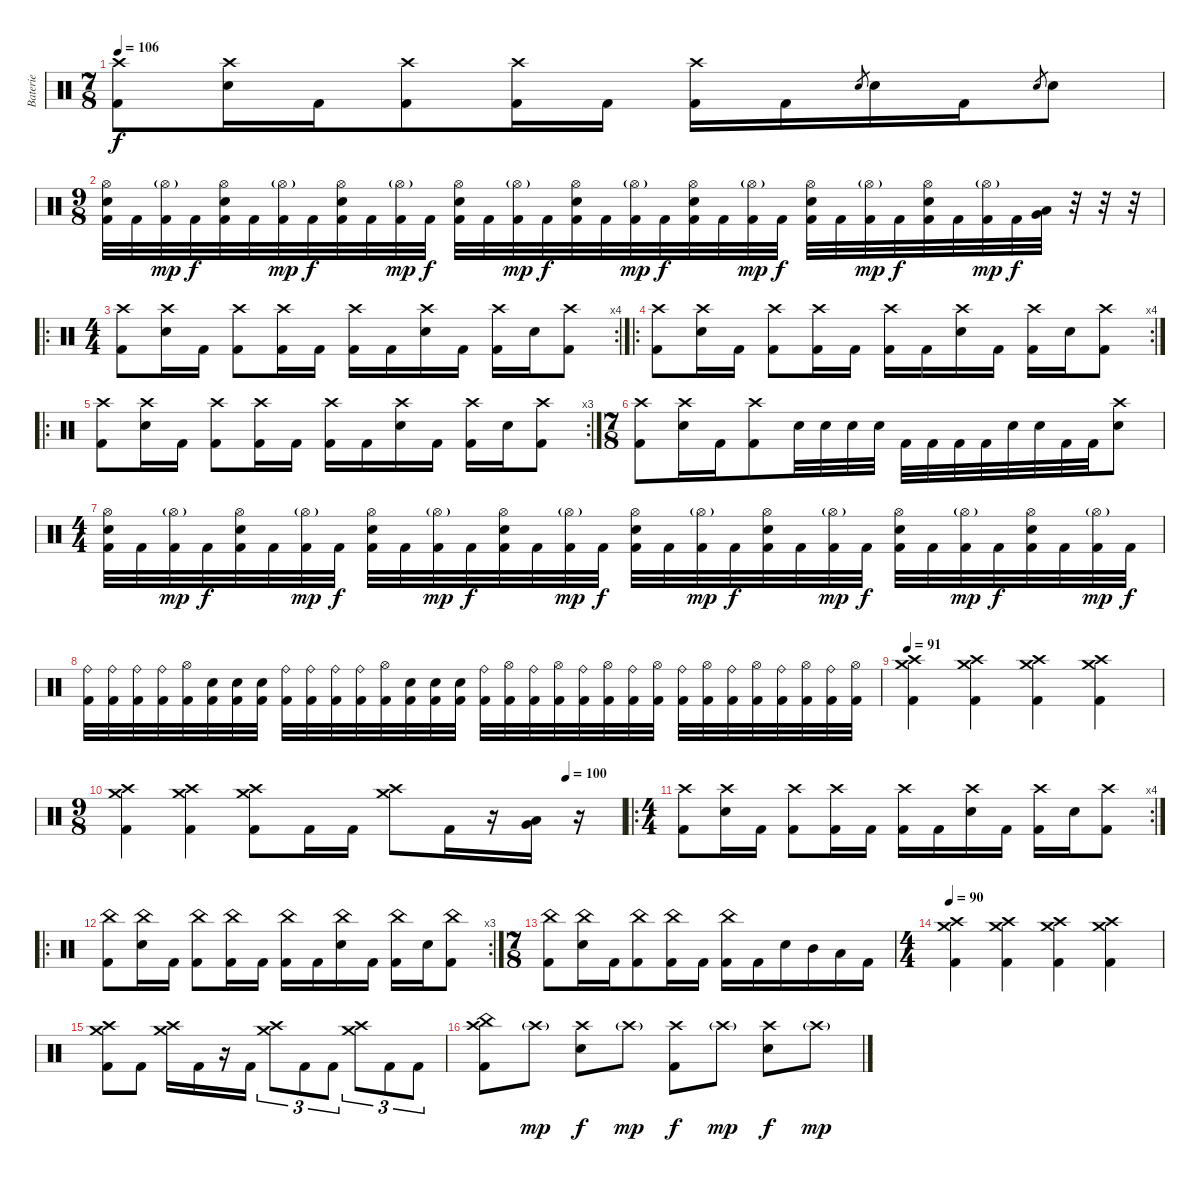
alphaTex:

\track ("Baterie" "Baterie") {instrument percussion}
\staff {score}
\articulation defaults
\ts (7 8)
\tempo 106
\clef neutral
\ks c
("Crash high (hit)" "Kick (hit) 2").8{dy f} ("Crash high (hit)" "Electric Snare (hit)").16 "Kick (hit) 2".16 ("Crash high (hit)" "Kick (hit) 2").8 ("Crash high (hit)" "Kick (hit) 2").16 "Kick (hit) 2".16 ("Crash high (hit)" "Kick (hit) 2").16 "Kick (hit) 2".16 "Electric Snare (hit)".8{gr} "Electric Snare (hit)".16 "Kick (hit) 2".16 "Electric Snare (hit)".8{gr} "Electric Snare (hit)".8 |
\ts (9 8)
("Hi-Hat (open)" "Electric Snare (hit)" "Kick (hit) 2").32 "Kick (hit) 2".32 ("Hi-Hat (open)"{g} "Kick (hit) 2").32{dy mp} "Kick (hit) 2".32{dy f} ("Hi-Hat (open)" "Electric Snare (hit)" "Kick (hit) 2").32 "Kick (hit) 2".32 ("Hi-Hat (open)"{g} "Kick (hit) 2").32{dy mp} "Kick (hit) 2".32{dy f} ("Hi-Hat (open)" "Electric Snare (hit)" "Kick (hit) 2").32 "Kick (hit) 2".32 ("Hi-Hat (open)"{g} "Kick (hit) 2").32{dy mp} "Kick (hit) 2".32{dy f} ("Hi-Hat (open)" "Electric Snare (hit)" "Kick (hit) 2").32 "Kick (hit) 2".32 ("Hi-Hat (open)"{g} "Kick (hit) 2").32{dy mp} "Kick (hit) 2".32{dy f} ("Hi-Hat (open)" "Electric Snare (hit)" "Kick (hit) 2").32 "Kick (hit) 2".32 ("Hi-Hat (open)"{g} "Kick (hit) 2").32{dy mp} "Kick (hit) 2".32{dy f} ("Hi-Hat (open)" "Electric Snare (hit)" "Kick (hit) 2").32 "Kick (hit) 2".32 ("Hi-Hat (open)"{g} "Kick (hit) 2").32{dy mp} "Kick (hit) 2".32{dy f} ("Hi-Hat (open)" "Electric Snare (hit)" "Kick (hit) 2").32 "Kick (hit) 2".32 ("Hi-Hat (open)"{g} "Kick (hit) 2").32{dy mp} "Kick (hit) 2".32{dy f} ("Hi-Hat (open)" "Electric Snare (hit)" "Kick (hit) 2").32 "Kick (hit) 2".32 ("Hi-Hat (open)"{g} "Kick (hit) 2").32{dy mp} "Kick (hit) 2".32{dy f} ("Very Low Tom (hit)" "Low Tom (hit)").32 r.32 r.32 r.32 |
\ro
\rc 4
\ts (4 4)
("Crash high (hit)" "Kick (hit) 2").8 ("Crash high (hit)" "Electric Snare (hit)").16 "Kick (hit) 2".16 ("Crash high (hit)" "Kick (hit) 2").8 ("Crash high (hit)" "Kick (hit) 2").16 "Kick (hit) 2".16 ("Crash high (hit)" "Kick (hit) 2").16 "Kick (hit) 2".16 ("Crash high (hit)" "Electric Snare (hit)").16 "Kick (hit) 2".16 ("Crash high (hit)" "Kick (hit) 2").16 "Electric Snare (hit)".16 ("Crash high (hit)" "Kick (hit) 2").8 |
\ro
\rc 4
("Crash high (hit)" "Kick (hit) 2").8 ("Crash high (hit)" "Electric Snare (hit)").16 "Kick (hit) 2".16 ("Crash high (hit)" "Kick (hit) 2").8 ("Crash high (hit)" "Kick (hit) 2").16 "Kick (hit) 2".16 ("Crash high (hit)" "Kick (hit) 2").16 "Kick (hit) 2".16 ("Crash high (hit)" "Electric Snare (hit)").16 "Kick (hit) 2".16 ("Crash high (hit)" "Kick (hit) 2").16 "Electric Snare (hit)".16 ("Crash high (hit)" "Kick (hit) 2").8 |
\ro
\rc 3
("Crash high (hit)" "Kick (hit) 2").8 ("Crash high (hit)" "Electric Snare (hit)").16 "Kick (hit) 2".16 ("Crash high (hit)" "Kick (hit) 2").8 ("Crash high (hit)" "Kick (hit) 2").16 "Kick (hit) 2".16 ("Crash high (hit)" "Kick (hit) 2").16 "Kick (hit) 2".16 ("Crash high (hit)" "Electric Snare (hit)").16 "Kick (hit) 2".16 ("Crash high (hit)" "Kick (hit) 2").16 "Electric Snare (hit)".16 ("Crash high (hit)" "Kick (hit) 2").8 |
\ts (7 8)
("Crash high (hit)" "Kick (hit) 2").8 ("Crash high (hit)" "Electric Snare (hit)").16 "Kick (hit) 2".16 ("Crash high (hit)" "Kick (hit) 2").8 "Electric Snare (hit)".32 "Electric Snare (hit)".32 "Electric Snare (hit)".32 "Electric Snare (hit)".32 "Kick (hit) 2".32 "Kick (hit) 2".32 "Kick (hit) 2".32 "Kick (hit) 2".32 "Electric Snare (hit)".32 "Electric Snare (hit)".32 "Kick (hit) 2".32 "Kick (hit) 2".32 ("Crash high (hit)" "Electric Snare (hit)").8 |
\ts (4 4)
("Hi-Hat (open)" "Electric Snare (hit)" "Kick (hit) 2").32 "Kick (hit) 2".32 ("Hi-Hat (open)"{g} "Kick (hit) 2").32{dy mp} "Kick (hit) 2".32{dy f} ("Hi-Hat (open)" "Electric Snare (hit)" "Kick (hit) 2").32 "Kick (hit) 2".32 ("Hi-Hat (open)"{g} "Kick (hit) 2").32{dy mp} "Kick (hit) 2".32{dy f} ("Hi-Hat (open)" "Electric Snare (hit)" "Kick (hit) 2").32 "Kick (hit) 2".32 ("Hi-Hat (open)"{g} "Kick (hit) 2").32{dy mp} "Kick (hit) 2".32{dy f} ("Hi-Hat (open)" "Electric Snare (hit)" "Kick (hit) 2").32 "Kick (hit) 2".32 ("Hi-Hat (open)"{g} "Kick (hit) 2").32{dy mp} "Kick (hit) 2".32{dy f} ("Hi-Hat (open)" "Electric Snare (hit)" "Kick (hit) 2").32 "Kick (hit) 2".32 ("Hi-Hat (open)"{g} "Kick (hit) 2").32{dy mp} "Kick (hit) 2".32{dy f} ("Hi-Hat (open)" "Electric Snare (hit)" "Kick (hit) 2").32 "Kick (hit) 2".32 ("Hi-Hat (open)"{g} "Kick (hit) 2").32{dy mp} "Kick (hit) 2".32{dy f} ("Hi-Hat (open)" "Electric Snare (hit)" "Kick (hit) 2").32 "Kick (hit) 2".32 ("Hi-Hat (open)"{g} "Kick (hit) 2").32{dy mp} "Kick (hit) 2".32{dy f} ("Hi-Hat (open)" "Electric Snare (hit)" "Kick (hit) 2").32 "Kick (hit) 2".32 ("Hi-Hat (open)"{g} "Kick (hit) 2").32{dy mp} "Kick (hit) 2".32{dy f} |
("Ride (bell)" "Kick (hit) 2").32 ("Ride (bell)" "Kick (hit) 2").32 ("Ride (bell)" "Kick (hit) 2").32 ("Ride (bell)" "Kick (hit) 2").32 ("Hi-Hat (open)" "Kick (hit) 2").32 ("Electric Snare (hit)" "Kick (hit) 2").32 ("Electric Snare (hit)" "Kick (hit) 2").32 ("Electric Snare (hit)" "Kick (hit) 2").32 ("Ride (bell)" "Kick (hit) 2").32 ("Ride (bell)" "Kick (hit) 2").32 ("Ride (bell)" "Kick (hit) 2").32 ("Ride (bell)" "Kick (hit) 2").32 ("Hi-Hat (open)" "Kick (hit) 2").32 ("Electric Snare (hit)" "Kick (hit) 2").32 ("Electric Snare (hit)" "Kick (hit) 2").32 ("Electric Snare (hit)" "Kick (hit) 2").32 ("Ride (bell)" "Kick (hit) 2").32 ("Hi-Hat (open)" "Kick (hit) 2").32 ("Ride (bell)" "Kick (hit) 2").32 ("Hi-Hat (open)" "Kick (hit) 2").32 ("Ride (bell)" "Kick (hit) 2").32 ("Hi-Hat (open)" "Kick (hit) 2").32 ("Ride (bell)" "Kick (hit) 2").32 ("Hi-Hat (open)" "Kick (hit) 2").32 ("Ride (bell)" "Kick (hit) 2").32 ("Hi-Hat (open)" "Kick (hit) 2").32 ("Ride (bell)" "Kick (hit) 2").32 ("Hi-Hat (open)" "Kick (hit) 2").32 ("Ride (bell)" "Kick (hit) 2").32 ("Hi-Hat (open)" "Kick (hit) 2").32 ("Ride (bell)" "Kick (hit) 2").32 ("Hi-Hat (open)" "Kick (hit) 2").32 |
\tempo 91
("Crash high (hit)" "Crash medium (hit)" "Kick (hit) 2").4 ("Crash medium (hit)" "Crash high (hit)" "Kick (hit) 2").4 ("Crash medium (hit)" "Crash high (hit)" "Kick (hit) 2").4 ("Crash medium (hit)" "Crash high (hit)" "Kick (hit) 2").4 |
\ts (9 8)
\tempo (100 0.8888888888888888)
("Crash medium (hit)" "Crash high (hit)" "Kick (hit) 2").4 ("Crash medium (hit)" "Crash high (hit)" "Kick (hit) 2").4 ("Crash medium (hit)" "Crash high (hit)" "Kick (hit) 2").8 "Kick (hit) 2".16 "Kick (hit) 2".16 ("Crash medium (hit)" "Crash high (hit)").8 "Kick (hit) 2".16 r.16 ("Very Low Tom (hit)" "Low Tom (hit)").16 r.16 |
\ro
\rc 4
\ts (4 4)
("Crash high (hit)" "Kick (hit) 2").8 ("Crash high (hit)" "Electric Snare (hit)").16 "Kick (hit) 2".16 ("Crash high (hit)" "Kick (hit) 2").8 ("Crash high (hit)" "Kick (hit) 2").16 "Kick (hit) 2".16 ("Crash high (hit)" "Kick (hit) 2").16 "Kick (hit) 2".16 ("Crash high (hit)" "Electric Snare (hit)").16 "Kick (hit) 2".16 ("Crash high (hit)" "Kick (hit) 2").16 "Electric Snare (hit)".16 ("Crash high (hit)" "Kick (hit) 2").8 |
\ro
\rc 3
("China (hit)" "Kick (hit) 2").8 ("China (hit)" "Electric Snare (hit)").16 "Kick (hit) 2".16 ("China (hit)" "Kick (hit) 2").8 ("China (hit)" "Kick (hit) 2").16 "Kick (hit) 2".16 ("China (hit)" "Kick (hit) 2").16 "Kick (hit) 2".16 ("China (hit)" "Electric Snare (hit)").16 "Kick (hit) 2".16 ("China (hit)" "Kick (hit) 2").16 "Electric Snare (hit)".16 ("China (hit)" "Kick (hit) 2").8 |
\ts (7 8)
("China (hit)" "Kick (hit) 2").8 ("China (hit)" "Electric Snare (hit)").16 "Kick (hit) 2".16 ("China (hit)" "Kick (hit) 2").8 ("China (hit)" "Kick (hit) 2").16 "Kick (hit) 2".16 ("China (hit)" "Kick (hit) 2").16 "Kick (hit) 2".16 "Electric Snare (hit)".16 "Mid Tom (hit)".16 "Low Tom (hit)".16 "Kick (hit) 2".16 |
\ts (4 4)
\tempo 90
("Crash high (hit)" "Crash medium (hit)" "Kick (hit) 2").4 ("Crash medium (hit)" "Crash high (hit)" "Kick (hit) 2").4 ("Crash medium (hit)" "Crash high (hit)" "Kick (hit) 2").4 ("Crash medium (hit)" "Crash high (hit)" "Kick (hit) 2").4 |
("Crash medium (hit)" "Crash high (hit)" "Kick (hit) 2").8 "Kick (hit) 2".8 ("Crash medium (hit)" "Crash high (hit)").16 "Kick (hit) 2".16 r.16 "Kick (hit) 2".16 ("Crash medium (hit)" "Crash high (hit)").8{tu (3 2)} "Kick (hit) 2".8{tu (3 2)} "Kick (hit) 2".8{tu (3 2)} ("Crash medium (hit)" "Crash high (hit)").8{tu (3 2)} "Kick (hit) 2".8{tu (3 2)} "Kick (hit) 2".8{tu (3 2)} |
("China (hit)" "Crash high (hit)" "Kick (hit) 2").8 "Crash high (hit)"{g}.8{dy mp} ("Crash high (hit)" "Electric Snare (hit)").8{dy f} "Crash high (hit)"{g}.8{dy mp} ("Crash high (hit)" "Kick (hit) 2").8{dy f} "Crash high (hit)"{g}.8{dy mp} ("Crash high (hit)" "Electric Snare (hit)").8{dy f} "Crash high (hit)"{g}.8{dy mp}
